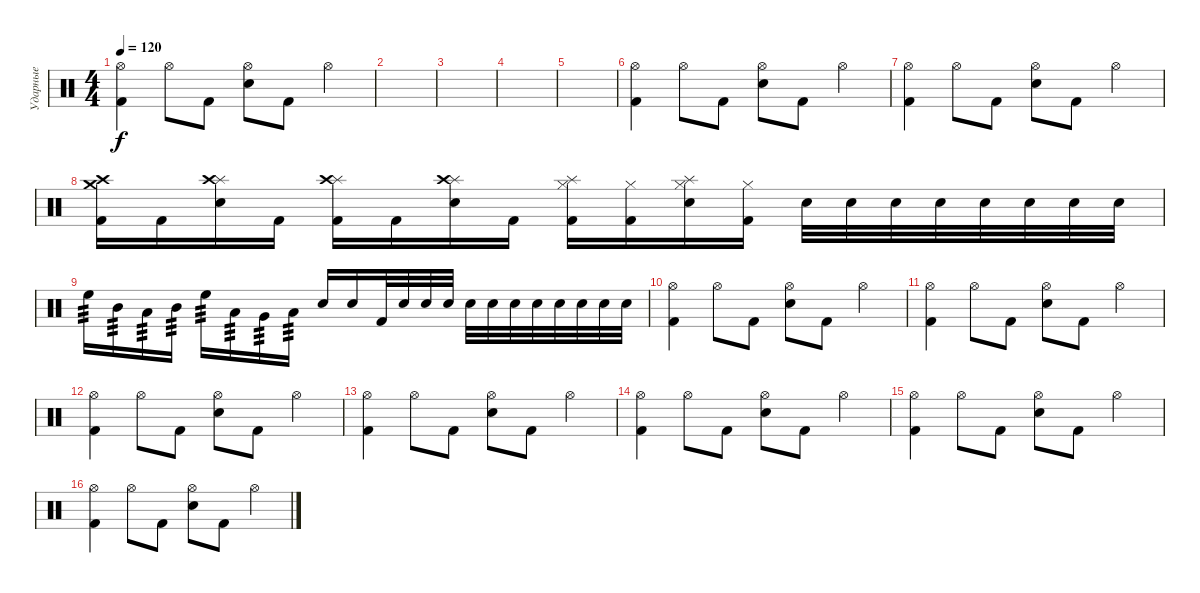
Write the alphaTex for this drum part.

\track ("Ударные" "Ударные") {instrument percussion}
\staff {score}
\articulation defaults
\ts (4 4)
\tempo 120
\clef neutral
\ks c
("Kick (hit) 2" "Hi-Hat (open)").4{dy f} "Hi-Hat (open)".8 "Kick (hit) 2".8 ("Hi-Hat (open)" "Snare (hit) 2").8 "Kick (hit) 2".8 "Hi-Hat (open)".4 |
|
|
|
|
("Kick (hit) 2" "Hi-Hat (open)").4 "Hi-Hat (open)".8 "Kick (hit) 2".8 ("Hi-Hat (open)" "Snare (hit) 2").8 "Kick (hit) 2".8 "Hi-Hat (open)".4 |
("Kick (hit) 2" "Hi-Hat (open)").4 "Hi-Hat (open)".8 "Kick (hit) 2".8 ("Hi-Hat (open)" "Snare (hit) 2").8 "Kick (hit) 2".8 "Hi-Hat (open)".4 |
("Crash medium (hit)" "Crash high (hit)" "Kick (hit) 2").16 "Kick (hit) 2".16 ("Splash (hit)" "Crash high (hit)" "Snare (hit) 2").16 "Kick (hit) 2".16 ("Splash (hit)" "Crash high (hit)" "Kick (hit) 2").16 "Kick (hit) 2".16 ("Splash (hit)" "Crash high (hit)" "Snare (hit) 2").16 "Kick (hit) 2".16 ("Splash (hit)" "Hi-Hat (closed)" "Kick (hit) 2").16 ("Hi-Hat (closed)" "Kick (hit) 2").16 ("Splash (hit)" "Hi-Hat (closed)" "Snare (hit) 2").16 ("Hi-Hat (closed)" "Kick (hit) 2").16 "Snare (hit) 2".32 "Snare (hit) 2".32 "Snare (hit) 2".32 "Snare (hit) 2".32 "Snare (hit) 2".32 "Snare (hit) 2".32 "Snare (hit) 2".32 "Snare (hit) 2".32 |
"High Floor Tom (hit)".16{tp 3} "Mid Tom (hit)".16{tp 3} "Low Tom (hit)".16{tp 3} "Mid Tom (hit)".16{tp 3} "High Floor Tom (hit)".16{tp 3} "Low Tom (hit)".16{tp 3} "Very Low Tom (hit)".16{tp 3} "Low Floor Tom (hit)".16{tp 3} "Snare (hit) 2".16 "Snare (hit) 2".16 "Kick (hit) 2".32 "Snare (hit) 2".32 "Snare (hit) 2".32 "Snare (hit) 2".32 "Snare (hit) 2".32 "Snare (hit) 2".32 "Snare (hit) 2".32 "Snare (hit) 2".32 "Snare (hit) 2".32 "Snare (hit) 2".32 "Snare (hit) 2".32 "Snare (hit) 2".32 |
("Kick (hit) 2" "Hi-Hat (open)").4 "Hi-Hat (open)".8 "Kick (hit) 2".8 ("Hi-Hat (open)" "Snare (hit) 2").8 "Kick (hit) 2".8 "Hi-Hat (open)".4 |
("Kick (hit) 2" "Hi-Hat (open)").4 "Hi-Hat (open)".8 "Kick (hit) 2".8 ("Hi-Hat (open)" "Snare (hit) 2").8 "Kick (hit) 2".8 "Hi-Hat (open)".4 |
("Kick (hit) 2" "Hi-Hat (open)").4 "Hi-Hat (open)".8 "Kick (hit) 2".8 ("Hi-Hat (open)" "Snare (hit) 2").8 "Kick (hit) 2".8 "Hi-Hat (open)".4 |
("Kick (hit) 2" "Hi-Hat (open)").4 "Hi-Hat (open)".8 "Kick (hit) 2".8 ("Hi-Hat (open)" "Snare (hit) 2").8 "Kick (hit) 2".8 "Hi-Hat (open)".4 |
("Kick (hit) 2" "Hi-Hat (open)").4 "Hi-Hat (open)".8 "Kick (hit) 2".8 ("Hi-Hat (open)" "Snare (hit) 2").8 "Kick (hit) 2".8 "Hi-Hat (open)".4 |
("Kick (hit) 2" "Hi-Hat (open)").4 "Hi-Hat (open)".8 "Kick (hit) 2".8 ("Hi-Hat (open)" "Snare (hit) 2").8 "Kick (hit) 2".8 "Hi-Hat (open)".4 |
("Kick (hit) 2" "Hi-Hat (open)").4 "Hi-Hat (open)".8 "Kick (hit) 2".8 ("Hi-Hat (open)" "Snare (hit) 2").8 "Kick (hit) 2".8 "Hi-Hat (open)".4
